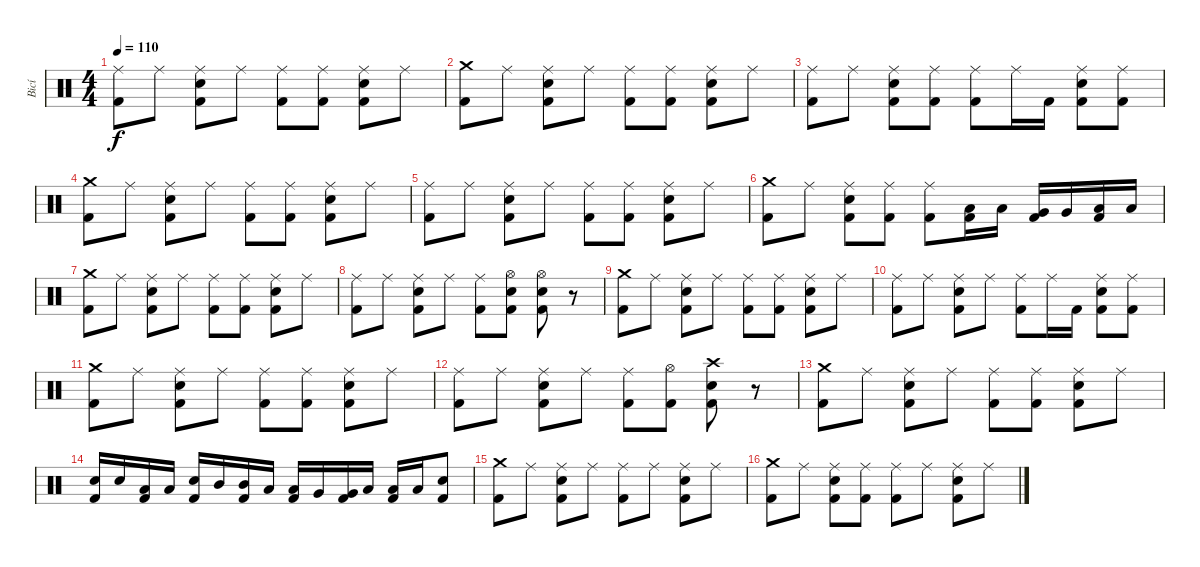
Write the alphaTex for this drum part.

\track ("Bicí" "Bicí") {instrument percussion}
\staff {score}
\articulation defaults
\ts (4 4)
\tempo 110
\clef neutral
\ks c
("Ride (middle)" "Kick (hit) 2").8{dy f} "Ride (middle)".8 ("Ride (middle)" "Electric Snare (hit)" "Kick (hit) 2").8 "Ride (middle)".8 ("Ride (middle)" "Kick (hit) 2").8 ("Ride (middle)" "Kick (hit) 2").8 ("Ride (middle)" "Electric Snare (hit)" "Kick (hit) 2").8 "Ride (middle)".8 |
("Crash medium (hit)" "Kick (hit) 2").8 "Ride (middle)".8 ("Ride (middle)" "Electric Snare (hit)" "Kick (hit) 2").8 "Ride (middle)".8 ("Ride (middle)" "Kick (hit) 2").8 ("Ride (middle)" "Kick (hit) 2").8 ("Ride (middle)" "Electric Snare (hit)" "Kick (hit) 2").8 "Ride (middle)".8 |
("Ride (middle)" "Kick (hit) 2").8 "Ride (middle)".8 ("Ride (middle)" "Electric Snare (hit)" "Kick (hit) 2").8 ("Ride (middle)" "Kick (hit) 2").8 ("Ride (middle)" "Kick (hit) 2").8 "Ride (middle)".16 "Kick (hit) 2".16 ("Ride (middle)" "Electric Snare (hit)" "Kick (hit) 2").8 ("Ride (middle)" "Kick (hit) 2").8 |
("Crash medium (hit)" "Kick (hit) 2").8 "Ride (middle)".8 ("Ride (middle)" "Electric Snare (hit)" "Kick (hit) 2").8 "Ride (middle)".8 ("Ride (middle)" "Kick (hit) 2").8 ("Ride (middle)" "Kick (hit) 2").8 ("Ride (middle)" "Electric Snare (hit)" "Kick (hit) 2").8 "Ride (middle)".8 |
("Ride (middle)" "Kick (hit) 2").8 "Ride (middle)".8 ("Ride (middle)" "Electric Snare (hit)" "Kick (hit) 2").8 "Ride (middle)".8 ("Ride (middle)" "Kick (hit) 2").8 ("Ride (middle)" "Kick (hit) 2").8 ("Ride (middle)" "Electric Snare (hit)" "Kick (hit) 2").8 "Ride (middle)".8 |
("Crash medium (hit)" "Kick (hit) 2").8 "Ride (middle)".8 ("Ride (middle)" "Electric Snare (hit)" "Kick (hit) 2").8 ("Ride (middle)" "Kick (hit) 2").8 ("Ride (middle)" "Kick (hit) 2").8 ("Low Tom (hit)" "Kick (hit) 2").16 "Low Tom (hit)".16 ("Very Low Tom (hit)" "Kick (hit) 2").16 "Very Low Tom (hit)".16 ("Low Floor Tom (hit)" "Kick (hit) 2").16 "Low Floor Tom (hit)".16 |
("Crash medium (hit)" "Kick (hit) 2").8 "Ride (middle)".8 ("Ride (middle)" "Electric Snare (hit)" "Kick (hit) 2").8 "Ride (middle)".8 ("Ride (middle)" "Kick (hit) 2").8 ("Ride (middle)" "Kick (hit) 2").8 ("Ride (middle)" "Electric Snare (hit)" "Kick (hit) 2").8 "Ride (middle)".8 |
("Ride (middle)" "Kick (hit) 2").8 "Ride (middle)".8 ("Ride (middle)" "Electric Snare (hit)" "Kick (hit) 2").8 "Ride (middle)".8 ("Ride (middle)" "Kick (hit) 2").8 ("Hi-Hat (open)" "Electric Snare (hit)" "Kick (hit) 2").8 ("Hi-Hat (open)" "Electric Snare (hit)" "Kick (hit) 2").8 r.8 |
("Crash medium (hit)" "Kick (hit) 2").8 "Ride (middle)".8 ("Ride (middle)" "Electric Snare (hit)" "Kick (hit) 2").8 "Ride (middle)".8 ("Ride (middle)" "Kick (hit) 2").8 ("Ride (middle)" "Kick (hit) 2").8 ("Ride (middle)" "Electric Snare (hit)" "Kick (hit) 2").8 "Ride (middle)".8 |
("Ride (middle)" "Kick (hit) 2").8 "Ride (middle)".8 ("Ride (middle)" "Electric Snare (hit)" "Kick (hit) 2").8 "Ride (middle)".8 ("Ride (middle)" "Kick (hit) 2").8 "Ride (middle)".16 "Kick (hit) 2".16 ("Ride (middle)" "Electric Snare (hit)" "Kick (hit) 2").8 ("Ride (middle)" "Kick (hit) 2").8 |
("Crash medium (hit)" "Kick (hit) 2").8 "Ride (middle)".8 ("Ride (middle)" "Electric Snare (hit)" "Kick (hit) 2").8 "Ride (middle)".8 ("Ride (middle)" "Kick (hit) 2").8 ("Ride (middle)" "Kick (hit) 2").8 ("Ride (middle)" "Electric Snare (hit)" "Kick (hit) 2").8 "Ride (middle)".8 |
("Ride (middle)" "Kick (hit) 2").8 "Ride (middle)".8 ("Ride (middle)" "Electric Snare (hit)" "Kick (hit) 2").8 "Ride (middle)".8 ("Ride (middle)" "Kick (hit) 2").8 ("Hi-Hat (open)" "Kick (hit) 2").8 ("Crash high (hit)" "Electric Snare (hit)" "Kick (hit) 2").8 r.8 |
("Crash medium (hit)" "Kick (hit) 2").8 "Ride (middle)".8 ("Ride (middle)" "Electric Snare (hit)" "Kick (hit) 2").8 "Ride (middle)".8 ("Ride (middle)" "Kick (hit) 2").8 ("Ride (middle)" "Kick (hit) 2").8 ("Ride (middle)" "Electric Snare (hit)" "Kick (hit) 2").8 "Ride (middle)".8 |
("Electric Snare (hit)" "Kick (hit) 2").16 "Electric Snare (hit)".16 ("Low Tom (hit)" "Kick (hit) 2").16 "Low Tom (hit)".16 ("Electric Snare (hit)" "Kick (hit) 2").16 "Mid Tom (hit)".16 ("Mid Tom (hit)" "Kick (hit) 2").16 "Low Tom (hit)".16 ("Low Tom (hit)" "Kick (hit) 2").16 "Very Low Tom (hit)".16 ("Very Low Tom (hit)" "Kick (hit) 2").16 "Low Floor Tom (hit)".16 ("Low Floor Tom (hit)" "Kick (hit) 2").16 "Low Floor Tom (hit)".16 ("Electric Snare (hit)" "Kick (hit) 2").8 |
("Crash medium (hit)" "Kick (hit) 2").8 "Ride (middle)".8 ("Ride (middle)" "Electric Snare (hit)" "Kick (hit) 2").8 "Ride (middle)".8 ("Ride (middle)" "Kick (hit) 2").8 "Ride (middle)".8 ("Ride (middle)" "Electric Snare (hit)" "Kick (hit) 2").8 "Ride (middle)".8 |
("Crash medium (hit)" "Kick (hit) 2").8 "Ride (middle)".8 ("Ride (middle)" "Electric Snare (hit)" "Kick (hit) 2").8 ("Ride (middle)" "Kick (hit) 2").8 ("Ride (middle)" "Kick (hit) 2").8 "Ride (middle)".8 ("Ride (middle)" "Electric Snare (hit)" "Kick (hit) 2").8 "Ride (middle)".8
